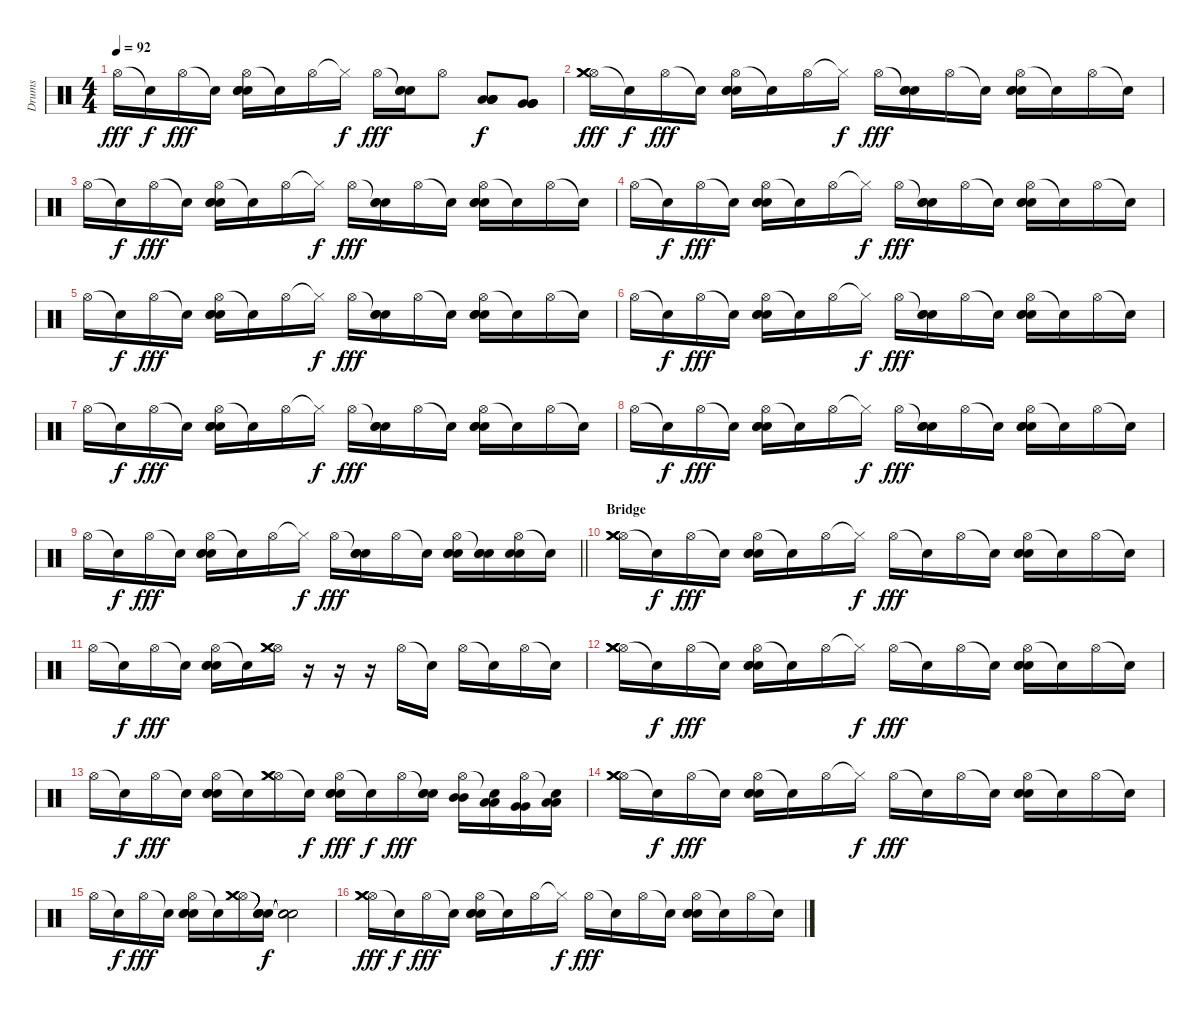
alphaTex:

\track ("Drums" "Drums") {instrument percussion}
\staff {score}
\articulation defaults
\ts (4 4)
\tempo 92
\clef neutral
\ks c "Hi-Hat (open)".16{dy fff} "Snare (hit)"{t}.16{dy f} "Hi-Hat (open)".16{dy fff} "Snare (hit)"{t}.16
("Hi-Hat (open)" "Snare (hit) 2" "Snare (hit) 2" "Snare (hit) 2").16 "Snare (hit)"{t}.16 "Hi-Hat (open)".16 "Hi-Hat (closed)"{t}.16{dy f} "Hi-Hat (open)".16{dy fff} ("Snare (hit)"{t} "Snare (hit) 2" "Snare (hit) 2").16 "Hi-Hat (open)".8 ("Low Tom (hit)" "Low Tom (hit)" "Low Tom (hit)" "Low Tom (hit)").8{dy f} ("Very Low Tom (hit)" "Very Low Tom (hit)" "Very Low Tom (hit)" "Very Low Tom (hit)").8 |
("Hi-Hat (open)" "Crash medium (hit)" "Crash medium (hit)" "Crash medium (hit)").16{dy fff} "Snare (hit)"{t}.16{dy f} "Hi-Hat (open)".16{dy fff} "Snare (hit)"{t}.16 ("Hi-Hat (open)" "Snare (hit) 2" "Snare (hit) 2" "Snare (hit) 2").16 "Snare (hit)"{t}.16 "Hi-Hat (open)".16 "Hi-Hat (closed)"{t}.16{dy f} "Hi-Hat (open)".16{dy fff} ("Snare (hit)"{t} "Snare (hit) 2" "Snare (hit) 2").16 "Hi-Hat (open)".16 "Snare (hit)"{t}.16 ("Hi-Hat (open)" "Snare (hit) 2" "Snare (hit) 2" "Snare (hit) 2").16 "Snare (hit)"{t}.16 "Hi-Hat (open)".16 "Snare (hit)"{t}.16 |
"Hi-Hat (open)".16 "Snare (hit)"{t}.16{dy f} "Hi-Hat (open)".16{dy fff} "Snare (hit)"{t}.16 ("Hi-Hat (open)" "Snare (hit) 2" "Snare (hit) 2" "Snare (hit) 2").16 "Snare (hit)"{t}.16 "Hi-Hat (open)".16 "Hi-Hat (closed)"{t}.16{dy f} "Hi-Hat (open)".16{dy fff} ("Snare (hit)"{t} "Snare (hit) 2" "Snare (hit) 2").16 "Hi-Hat (open)".16 "Snare (hit)"{t}.16 ("Hi-Hat (open)" "Snare (hit) 2" "Snare (hit) 2" "Snare (hit) 2").16 "Snare (hit)"{t}.16 "Hi-Hat (open)".16 "Snare (hit)"{t}.16 |
"Hi-Hat (open)".16 "Snare (hit)"{t}.16{dy f} "Hi-Hat (open)".16{dy fff} "Snare (hit)"{t}.16 ("Hi-Hat (open)" "Snare (hit) 2" "Snare (hit) 2" "Snare (hit) 2").16 "Snare (hit)"{t}.16 "Hi-Hat (open)".16 "Hi-Hat (closed)"{t}.16{dy f} "Hi-Hat (open)".16{dy fff} ("Snare (hit)"{t} "Snare (hit) 2" "Snare (hit) 2").16 "Hi-Hat (open)".16 "Snare (hit)"{t}.16 ("Hi-Hat (open)" "Snare (hit) 2" "Snare (hit) 2" "Snare (hit) 2").16 "Snare (hit)"{t}.16 "Hi-Hat (open)".16 "Snare (hit)"{t}.16 |
"Hi-Hat (open)".16 "Snare (hit)"{t}.16{dy f} "Hi-Hat (open)".16{dy fff} "Snare (hit)"{t}.16 ("Hi-Hat (open)" "Snare (hit) 2" "Snare (hit) 2" "Snare (hit) 2").16 "Snare (hit)"{t}.16 "Hi-Hat (open)".16 "Hi-Hat (closed)"{t}.16{dy f} "Hi-Hat (open)".16{dy fff} ("Snare (hit)"{t} "Snare (hit) 2" "Snare (hit) 2").16 "Hi-Hat (open)".16 "Snare (hit)"{t}.16 ("Hi-Hat (open)" "Snare (hit) 2" "Snare (hit) 2" "Snare (hit) 2").16 "Snare (hit)"{t}.16 "Hi-Hat (open)".16 "Snare (hit)"{t}.16 |
"Hi-Hat (open)".16 "Snare (hit)"{t}.16{dy f} "Hi-Hat (open)".16{dy fff} "Snare (hit)"{t}.16 ("Hi-Hat (open)" "Snare (hit) 2" "Snare (hit) 2" "Snare (hit) 2").16 "Snare (hit)"{t}.16 "Hi-Hat (open)".16 "Hi-Hat (closed)"{t}.16{dy f} "Hi-Hat (open)".16{dy fff} ("Snare (hit)"{t} "Snare (hit) 2" "Snare (hit) 2").16 "Hi-Hat (open)".16 "Snare (hit)"{t}.16 ("Hi-Hat (open)" "Snare (hit) 2" "Snare (hit) 2" "Snare (hit) 2").16 "Snare (hit)"{t}.16 "Hi-Hat (open)".16 "Snare (hit)"{t}.16 |
"Hi-Hat (open)".16 "Snare (hit)"{t}.16{dy f} "Hi-Hat (open)".16{dy fff} "Snare (hit)"{t}.16 ("Hi-Hat (open)" "Snare (hit) 2" "Snare (hit) 2" "Snare (hit) 2").16 "Snare (hit)"{t}.16 "Hi-Hat (open)".16 "Hi-Hat (closed)"{t}.16{dy f} "Hi-Hat (open)".16{dy fff} ("Snare (hit)"{t} "Snare (hit) 2" "Snare (hit) 2").16 "Hi-Hat (open)".16 "Snare (hit)"{t}.16 ("Hi-Hat (open)" "Snare (hit) 2" "Snare (hit) 2" "Snare (hit) 2").16 "Snare (hit)"{t}.16 "Hi-Hat (open)".16 "Snare (hit)"{t}.16 |
"Hi-Hat (open)".16 "Snare (hit)"{t}.16{dy f} "Hi-Hat (open)".16{dy fff} "Snare (hit)"{t}.16 ("Hi-Hat (open)" "Snare (hit) 2" "Snare (hit) 2" "Snare (hit) 2").16 "Snare (hit)"{t}.16 "Hi-Hat (open)".16 "Hi-Hat (closed)"{t}.16{dy f} "Hi-Hat (open)".16{dy fff} ("Snare (hit)"{t} "Snare (hit) 2" "Snare (hit) 2").16 "Hi-Hat (open)".16 "Snare (hit)"{t}.16 ("Hi-Hat (open)" "Snare (hit) 2" "Snare (hit) 2" "Snare (hit) 2").16 "Snare (hit)"{t}.16 "Hi-Hat (open)".16 "Snare (hit)"{t}.16 |
\barLineRight lightlight "Hi-Hat (open)".16 "Snare (hit)"{t}.16{dy f} "Hi-Hat (open)".16{dy fff} "Snare (hit)"{t}.16
("Hi-Hat (open)" "Snare (hit) 2" "Snare (hit) 2" "Snare (hit) 2").16 "Snare (hit)"{t}.16 "Hi-Hat (open)".16 "Hi-Hat (closed)"{t}.16{dy f} "Hi-Hat (open)".16{dy fff} ("Snare (hit)"{t} "Snare (hit) 2" "Snare (hit) 2").16 "Hi-Hat (open)".16 "Snare (hit)"{t}.16 ("Hi-Hat (open)" "Snare (hit) 2" "Snare (hit) 2" "Snare (hit) 2").16 ("Snare (hit)"{t} "Snare (hit) 2" "Snare (hit) 2").16 ("Hi-Hat (open)" "Snare (hit) 2" "Snare (hit) 2").16 "Snare (hit)"{t}.16 |
\section ("" "Bridge")
("Hi-Hat (open)" "Crash medium (hit)" "Crash medium (hit)" "Crash medium (hit)" "Crash medium (hit)").16 "Snare (hit)"{t}.16{dy f} "Hi-Hat (open)".16{dy fff} "Snare (hit)"{t}.16 ("Hi-Hat (open)" "Snare (hit) 2" "Snare (hit) 2" "Snare (hit) 2").16 "Snare (hit)"{t}.16 "Hi-Hat (open)".16 "Hi-Hat (closed)"{t}.16{dy f} "Hi-Hat (open)".16{dy fff} "Snare (hit)"{t}.16 "Hi-Hat (open)".16 "Snare (hit)"{t}.16 ("Hi-Hat (open)" "Snare (hit) 2" "Snare (hit) 2" "Snare (hit) 2").16 "Snare (hit)"{t}.16 "Hi-Hat (open)".16 "Snare (hit)"{t}.16 |
"Hi-Hat (open)".16 "Snare (hit)"{t}.16{dy f} "Hi-Hat (open)".16{dy fff} "Snare (hit)"{t}.16 ("Hi-Hat (open)" "Snare (hit) 2" "Snare (hit) 2" "Snare (hit) 2").16 "Snare (hit)"{t}.16 ("Hi-Hat (open)" "Crash medium (hit)" "Crash medium (hit)" "Crash medium (hit)").16 r.16 r.16 r.16 "Hi-Hat (open)".16 "Snare (hit)"{t}.16 "Hi-Hat (open)".16 "Snare (hit)"{t}.16 "Hi-Hat (open)".16 "Snare (hit)"{t}.16 |
("Hi-Hat (open)" "Crash medium (hit)" "Crash medium (hit)" "Crash medium (hit)" "Crash medium (hit)").16 "Snare (hit)"{t}.16{dy f} "Hi-Hat (open)".16{dy fff} "Snare (hit)"{t}.16 ("Hi-Hat (open)" "Snare (hit) 2" "Snare (hit) 2" "Snare (hit) 2").16 "Snare (hit)"{t}.16 "Hi-Hat (open)".16 "Hi-Hat (closed)"{t}.16{dy f} "Hi-Hat (open)".16{dy fff} "Snare (hit)"{t}.16 "Hi-Hat (open)".16 "Snare (hit)"{t}.16 ("Hi-Hat (open)" "Snare (hit) 2" "Snare (hit) 2" "Snare (hit) 2").16 "Snare (hit)"{t}.16 "Hi-Hat (open)".16 "Snare (hit)"{t}.16 |
"Hi-Hat (open)".16 "Snare (hit)"{t}.16{dy f} "Hi-Hat (open)".16{dy fff} "Snare (hit)"{t}.16 ("Hi-Hat (open)" "Snare (hit) 2" "Snare (hit) 2" "Snare (hit) 2").16 "Snare (hit)"{t}.16 ("Hi-Hat (open)" "Crash medium (hit)" "Crash medium (hit)" "Crash medium (hit)").16 "Snare (hit)"{t}.16{dy f} ("Hi-Hat (open)" "Snare (hit) 2" "Snare (hit) 2" "Snare (hit) 2").16{dy fff} "Snare (hit)"{t}.16{dy f} "Hi-Hat (open)".16{dy fff} ("Snare (hit)"{t} "Snare (hit) 2" "Snare (hit) 2").16 ("Hi-Hat (open)" "Mid Tom (hit)" "Mid Tom (hit)").16 ("Snare (hit)"{t} "Low Tom (hit)" "Low Tom (hit)").16 ("Hi-Hat (open)" "Very Low Tom (hit)" "Very Low Tom (hit)").16 ("Snare (hit)"{t} "Low Floor Tom (hit)" "Low Floor Tom (hit)").16 |
("Hi-Hat (open)" "Crash medium (hit)" "Crash medium (hit)" "Crash medium (hit)" "Crash medium (hit)").16 "Snare (hit)"{t}.16{dy f} "Hi-Hat (open)".16{dy fff} "Snare (hit)"{t}.16 ("Hi-Hat (open)" "Snare (hit) 2" "Snare (hit) 2" "Snare (hit) 2").16 "Snare (hit)"{t}.16 "Hi-Hat (open)".16 "Hi-Hat (closed)"{t}.16{dy f} "Hi-Hat (open)".16{dy fff} "Snare (hit)"{t}.16 "Hi-Hat (open)".16 "Snare (hit)"{t}.16 ("Hi-Hat (open)" "Snare (hit) 2" "Snare (hit) 2" "Snare (hit) 2").16 "Snare (hit)"{t}.16 "Hi-Hat (open)".16 "Snare (hit)"{t}.16 |
"Hi-Hat (open)".16 "Snare (hit)"{t}.16{dy f} "Hi-Hat (open)".16{dy fff} "Snare (hit)"{t}.16 ("Hi-Hat (open)" "Snare (hit) 2" "Snare (hit) 2" "Snare (hit) 2").16 "Snare (hit)"{t}.16 ("Hi-Hat (open)" "Crash medium (hit)" "Crash medium (hit)" "Crash medium (hit)").16 ("Snare (hit)"{t} "Snare (hit)"{t} "Snare (hit)"{t} "Snare (hit)"{t}).16{dy f} ("Snare (hit)"{t} "Snare (hit)"{t} "Snare (hit)"{t} "Snare (hit)"{t}).2 |
("Hi-Hat (open)" "Crash medium (hit)" "Crash medium (hit)" "Crash medium (hit)" "Crash medium (hit)").16{dy fff} "Snare (hit)"{t}.16{dy f} "Hi-Hat (open)".16{dy fff} "Snare (hit)"{t}.16 ("Hi-Hat (open)" "Snare (hit) 2" "Snare (hit) 2" "Snare (hit) 2").16 "Snare (hit)"{t}.16 "Hi-Hat (open)".16 "Hi-Hat (closed)"{t}.16{dy f} "Hi-Hat (open)".16{dy fff} "Snare (hit)"{t}.16 "Hi-Hat (open)".16 "Snare (hit)"{t}.16 ("Hi-Hat (open)" "Snare (hit) 2" "Snare (hit) 2" "Snare (hit) 2").16 "Snare (hit)"{t}.16 "Hi-Hat (open)".16 "Snare (hit)"{t}.16
